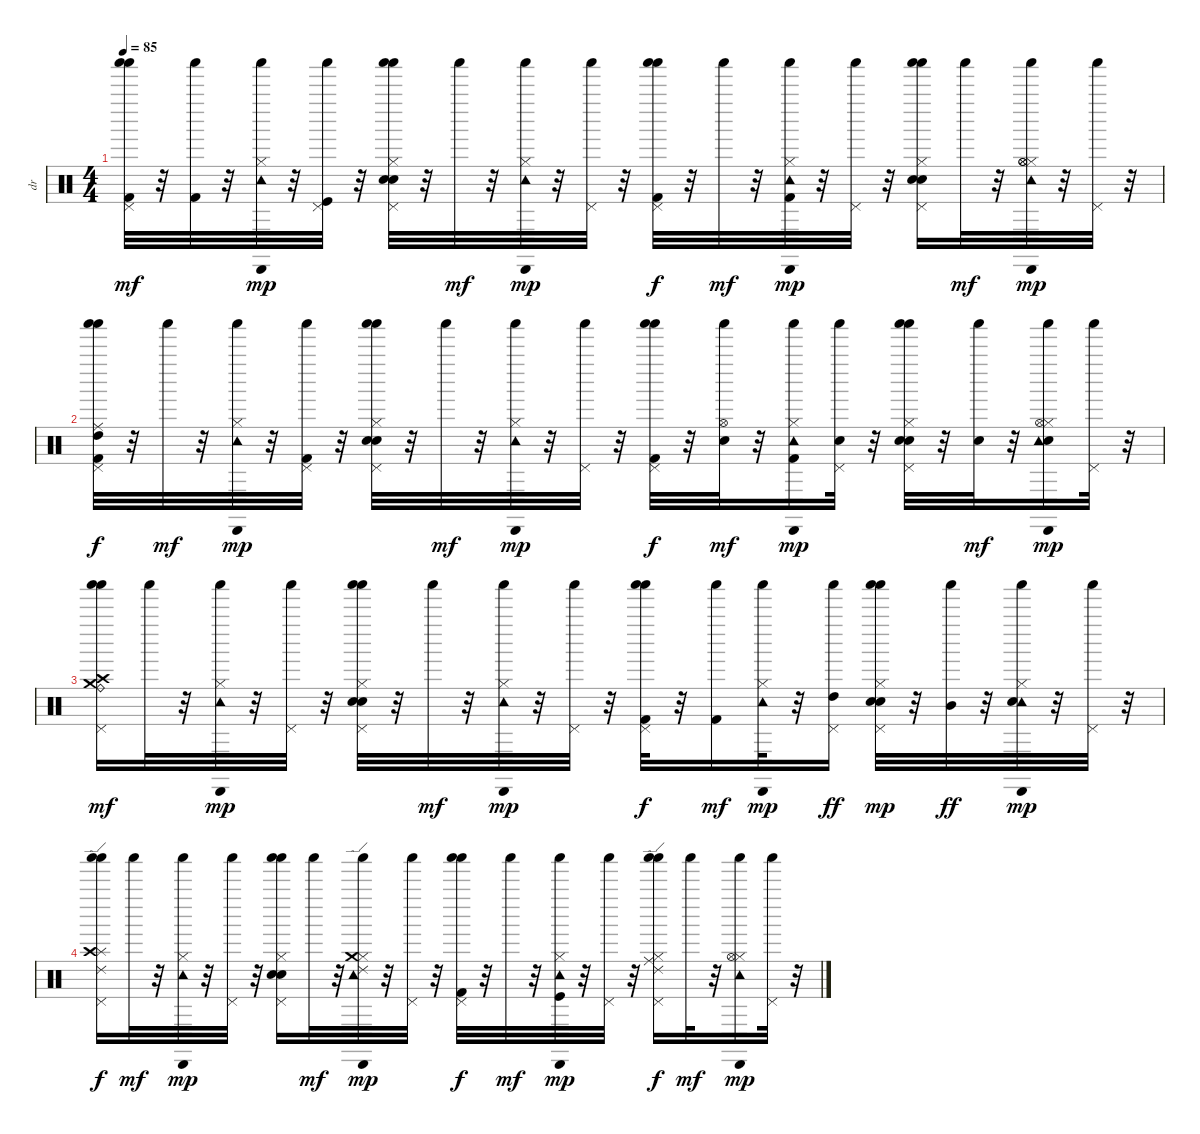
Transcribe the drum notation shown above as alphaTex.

\track ("dr" "dr") {instrument percussion}
\staff {score}
\articulation defaults
\ts (4 4)
\tempo 85
\clef neutral
\ks c
("Pedal Hi-Hat (hit)" "Shaker (hit)" "Shaker (hit)" "Kick (hit) 2").32{dy mf} r.32 ("Shaker (hit)" "Kick (hit) 2").32 r.32 ("Cabasa (hit)" "Tambourine (hit)" "Shaker (hit)" "Hi-Hat (closed)").32{dy mp} r.32 ("Pedal Hi-Hat (hit)" "Shaker (hit)" "Kick (hit)").32 r.32 ("Pedal Hi-Hat (hit)" "Shaker (hit)" "Shaker (hit)" "Hi-Hat (closed)" "Electric Snare (hit)" "Snare (hit) 2").32 r.32 "Shaker (hit)".32{dy mf} r.32 ("Hi-Hat (closed)" "Cabasa (hit)" "Tambourine (hit)" "Shaker (hit)").32{dy mp} r.32 ("Pedal Hi-Hat (hit)" "Shaker (hit)").32 r.32 ("Pedal Hi-Hat (hit)" "Shaker (hit)" "Shaker (hit)" "Kick (hit) 2").32{dy f} r.32 "Shaker (hit)".32{dy mf} r.32 ("Hi-Hat (closed)" "Cabasa (hit)" "Tambourine (hit)" "Shaker (hit)" "Kick (hit) 2").32{dy mp} r.32 ("Pedal Hi-Hat (hit)" "Shaker (hit)").32 r.32 ("Electric Snare (hit)" "Pedal Hi-Hat (hit)" "Shaker (hit)" "Shaker (hit)" "Hi-Hat (closed)" "Snare (hit) 2").16 "Shaker (hit)".32{dy mf} r.32 ("Hi-Hat (closed)" "Cabasa (hit)" "Tambourine (hit)" "Shaker (hit)" "Hi-Hat (open)" "Hi-Hat (open)").32{dy mp} r.32 ("Pedal Hi-Hat (hit)" "Shaker (hit)").32 r.32 |
("Pedal Hi-Hat (hit)" "Shaker (hit)" "Shaker (hit)" "Kick (hit) 2" "Ride (middle)" "High Tom (hit)").32{dy f} r.32 "Shaker (hit)".32{dy mf} r.32 ("Hi-Hat (closed)" "Cabasa (hit)" "Tambourine (hit)" "Shaker (hit)").32{dy mp} r.32 ("Pedal Hi-Hat (hit)" "Shaker (hit)" "Kick (hit) 2").32 r.32 ("Electric Snare (hit)" "Pedal Hi-Hat (hit)" "Shaker (hit)" "Shaker (hit)" "Hi-Hat (closed)" "Snare (hit) 2").32 r.32 "Shaker (hit)".32{dy mf} r.32 ("Hi-Hat (closed)" "Cabasa (hit)" "Tambourine (hit)" "Shaker (hit)").32{dy mp} r.32 ("Pedal Hi-Hat (hit)" "Shaker (hit)").32 r.32 ("Pedal Hi-Hat (hit)" "Shaker (hit)" "Shaker (hit)" "Kick (hit) 2").32{dy f} r.32 ("Shaker (hit)" "Snare (hit) 2" "Hi-Hat (open)").32{dy mf} r.32 ("Hi-Hat (closed)" "Cabasa (hit)" "Tambourine (hit)" "Shaker (hit)" "Kick (hit) 2").16{dy mp} ("Pedal Hi-Hat (hit)" "Shaker (hit)" "Electric Snare (hit)").32 r.32 ("Electric Snare (hit)" "Pedal Hi-Hat (hit)" "Shaker (hit)" "Shaker (hit)" "Hi-Hat (closed)" "Snare (hit) 2").32 r.32 ("Snare (hit) 2" "Shaker (hit)").32{dy mf} r.32 ("Snare (hit) 2" "Hi-Hat (closed)" "Cabasa (hit)" "Tambourine (hit)" "Shaker (hit)" "Hi-Hat (open)").16{dy mp} ("Pedal Hi-Hat (hit)" "Shaker (hit)").32 r.32 |
("Shaker (hit)" "Shaker (hit)" "Pedal Hi-Hat (hit)" "Crash medium (hit)" "Ride (bell)" "Crash high (hit)").16{dy mf} "Shaker (hit)".32 r.32 ("Hi-Hat (closed)" "Cabasa (hit)" "Tambourine (hit)" "Shaker (hit)").32{dy mp} r.32 ("Pedal Hi-Hat (hit)" "Shaker (hit)").32 r.32 ("Electric Snare (hit)" "Pedal Hi-Hat (hit)" "Shaker (hit)" "Shaker (hit)" "Hi-Hat (closed)" "Snare (hit) 2").32 r.32 "Shaker (hit)".32{dy mf} r.32 ("Hi-Hat (closed)" "Cabasa (hit)" "Tambourine (hit)" "Shaker (hit)").32{dy mp} r.32 ("Pedal Hi-Hat (hit)" "Shaker (hit)").32 r.32 ("Pedal Hi-Hat (hit)" "Shaker (hit)" "Shaker (hit)" "Kick (hit) 2").32{dy f} r.32 ("Shaker (hit)" "Kick (hit) 2").16{dy mf} ("Cabasa (hit)" "Tambourine (hit)" "Shaker (hit)" "Hi-Hat (closed)").32{dy mp} r.32 ("Pedal Hi-Hat (hit)" "Shaker (hit)" "High Tom (hit)").16{dy ff} ("Shaker (hit)" "Shaker (hit)" "Pedal Hi-Hat (hit)" "Hi-Hat (closed)" "Electric Snare (hit)" "Snare (hit) 2").32{dy mp} r.32 ("Shaker (hit)" "Mid Tom (hit)").32{dy ff} r.32 ("Hi-Hat (closed)" "Cabasa (hit)" "Tambourine (hit)" "Shaker (hit)" "Snare (hit) 2").32{dy mp} r.32 ("Pedal Hi-Hat (hit)" "Shaker (hit)").32 r.32 |
("Pedal Hi-Hat (hit)" "Shaker (hit)" "Shaker (hit)" "Ride (edge) 2" "Splash (hit)" "Crash high (hit)").16{dy f} "Shaker (hit)".32{dy mf} r.32 ("Hi-Hat (closed)" "Cabasa (hit)" "Tambourine (hit)" "Shaker (hit)").32{dy mp} r.32 ("Pedal Hi-Hat (hit)" "Shaker (hit)").32 r.32 ("Electric Snare (hit)" "Pedal Hi-Hat (hit)" "Shaker (hit)" "Shaker (hit)" "Hi-Hat (closed)" "Snare (hit) 2").16 "Shaker (hit)".32{dy mf} r.32 ("Hi-Hat (closed)" "Cabasa (hit)" "Tambourine (hit)" "Shaker (hit)" "Crash medium (hit)" "Ride (edge) 2").32{dy mp} r.32 ("Pedal Hi-Hat (hit)" "Shaker (hit)").32 r.32 ("Pedal Hi-Hat (hit)" "Shaker (hit)" "Shaker (hit)" "Kick (hit) 2").32{dy f} r.32 "Shaker (hit)".32{dy mf} r.32 ("Hi-Hat (closed)" "Cabasa (hit)" "Tambourine (hit)" "Shaker (hit)" "Kick (hit)").32{dy mp} r.32 ("Pedal Hi-Hat (hit)" "Shaker (hit)").32 r.32 ("Pedal Hi-Hat (hit)" "Shaker (hit)" "Shaker (hit)" "Hi-Hat (closed)" "Ride (middle)" "Ride (edge) 2").16{dy f} "Shaker (hit)".32{dy mf} r.32 ("Hi-Hat (closed)" "Cabasa (hit)" "Tambourine (hit)" "Shaker (hit)" "Hi-Hat (open)").16{dy mp} ("Pedal Hi-Hat (hit)" "Shaker (hit)").32 r.32
